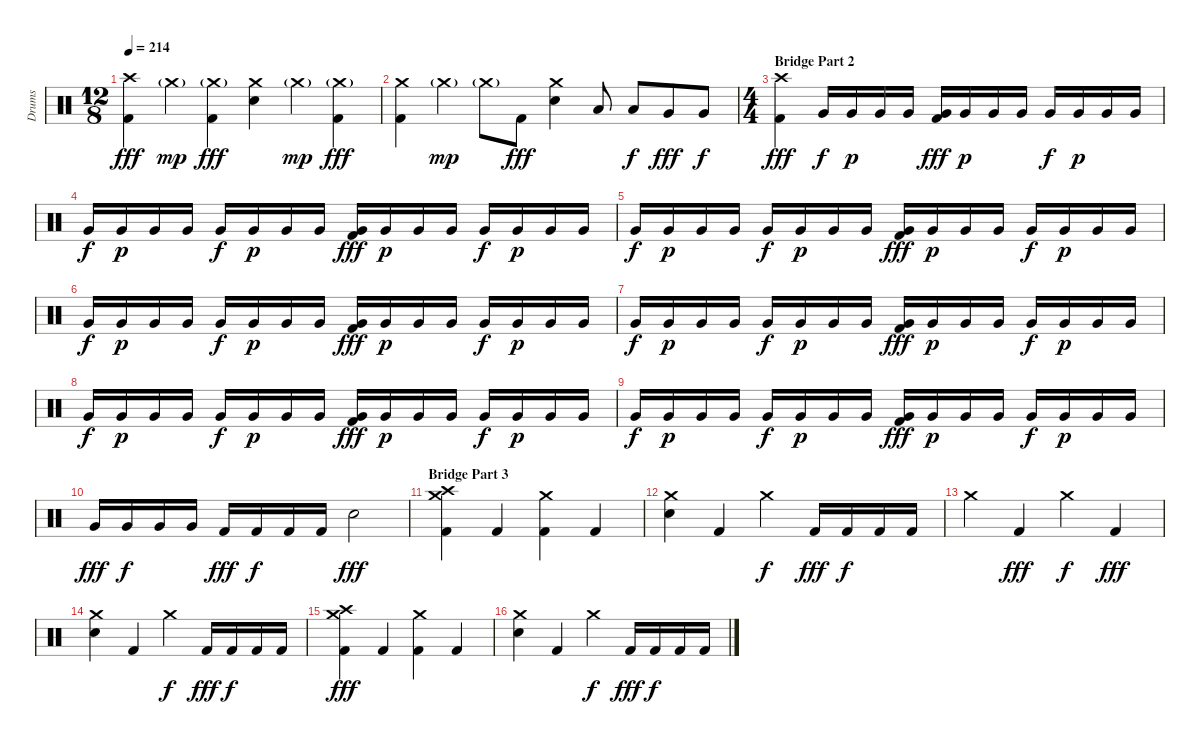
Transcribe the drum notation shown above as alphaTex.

\track ("Drums" "Drums") {instrument percussion}
\staff {score}
\articulation defaults
\ts (12 8)
\tempo 214
\clef neutral
\ks c
("Crash high (hit)" "Kick (hit) 2").4{dy fff} "Crash medium (hit)"{g}.4{dy mp} ("Crash medium (hit)"{g} "Kick (hit) 2").4{dy fff} ("Crash medium (hit)" "Electric Snare (hit)").4 "Crash medium (hit)"{g}.4{dy mp} ("Crash medium (hit)"{g} "Kick (hit) 2").4{dy fff} |
("Crash medium (hit)" "Kick (hit) 2").4 "Crash medium (hit)"{g}.4{dy mp} "Crash medium (hit)"{g}.8 "Kick (hit) 2".8{dy fff} ("Crash medium (hit)" "Electric Snare (hit)").4 "Low Tom (hit)".8 "Low Tom (hit)".8{dy f} "Very Low Tom (hit)".8{dy fff} "Very Low Tom (hit)".8{dy f} |
\ts (4 4)
\section ("" "Bridge Part 2")
("Crash high (hit)" "Kick (hit) 2").4{dy fff} "Very Low Tom (hit)".16{dy f} "Very Low Tom (hit)".16{dy p} "Very Low Tom (hit)".16 "Very Low Tom (hit)".16 ("Very Low Tom (hit)" "Kick (hit) 2").16{dy fff} "Very Low Tom (hit)".16{dy p} "Very Low Tom (hit)".16 "Very Low Tom (hit)".16 "Very Low Tom (hit)".16{dy f} "Very Low Tom (hit)".16{dy p} "Very Low Tom (hit)".16 "Very Low Tom (hit)".16 |
"Very Low Tom (hit)".16{dy f} "Very Low Tom (hit)".16{dy p} "Very Low Tom (hit)".16 "Very Low Tom (hit)".16 "Very Low Tom (hit)".16{dy f} "Very Low Tom (hit)".16{dy p} "Very Low Tom (hit)".16 "Very Low Tom (hit)".16 ("Very Low Tom (hit)" "Kick (hit) 2").16{dy fff} "Very Low Tom (hit)".16{dy p} "Very Low Tom (hit)".16 "Very Low Tom (hit)".16 "Very Low Tom (hit)".16{dy f} "Very Low Tom (hit)".16{dy p} "Very Low Tom (hit)".16 "Very Low Tom (hit)".16 |
"Very Low Tom (hit)".16{dy f} "Very Low Tom (hit)".16{dy p} "Very Low Tom (hit)".16 "Very Low Tom (hit)".16 "Very Low Tom (hit)".16{dy f} "Very Low Tom (hit)".16{dy p} "Very Low Tom (hit)".16 "Very Low Tom (hit)".16 ("Very Low Tom (hit)" "Kick (hit) 2").16{dy fff} "Very Low Tom (hit)".16{dy p} "Very Low Tom (hit)".16 "Very Low Tom (hit)".16 "Very Low Tom (hit)".16{dy f} "Very Low Tom (hit)".16{dy p} "Very Low Tom (hit)".16 "Very Low Tom (hit)".16 |
"Very Low Tom (hit)".16{dy f} "Very Low Tom (hit)".16{dy p} "Very Low Tom (hit)".16 "Very Low Tom (hit)".16 "Very Low Tom (hit)".16{dy f} "Very Low Tom (hit)".16{dy p} "Very Low Tom (hit)".16 "Very Low Tom (hit)".16 ("Very Low Tom (hit)" "Kick (hit) 2").16{dy fff} "Very Low Tom (hit)".16{dy p} "Very Low Tom (hit)".16 "Very Low Tom (hit)".16 "Very Low Tom (hit)".16{dy f} "Very Low Tom (hit)".16{dy p} "Very Low Tom (hit)".16 "Very Low Tom (hit)".16 |
"Very Low Tom (hit)".16{dy f} "Very Low Tom (hit)".16{dy p} "Very Low Tom (hit)".16 "Very Low Tom (hit)".16 "Very Low Tom (hit)".16{dy f} "Very Low Tom (hit)".16{dy p} "Very Low Tom (hit)".16 "Very Low Tom (hit)".16 ("Very Low Tom (hit)" "Kick (hit) 2").16{dy fff} "Very Low Tom (hit)".16{dy p} "Very Low Tom (hit)".16 "Very Low Tom (hit)".16 "Very Low Tom (hit)".16{dy f} "Very Low Tom (hit)".16{dy p} "Very Low Tom (hit)".16 "Very Low Tom (hit)".16 |
"Very Low Tom (hit)".16{dy f} "Very Low Tom (hit)".16{dy p} "Very Low Tom (hit)".16 "Very Low Tom (hit)".16 "Very Low Tom (hit)".16{dy f} "Very Low Tom (hit)".16{dy p} "Very Low Tom (hit)".16 "Very Low Tom (hit)".16 ("Very Low Tom (hit)" "Kick (hit) 2").16{dy fff} "Very Low Tom (hit)".16{dy p} "Very Low Tom (hit)".16 "Very Low Tom (hit)".16 "Very Low Tom (hit)".16{dy f} "Very Low Tom (hit)".16{dy p} "Very Low Tom (hit)".16 "Very Low Tom (hit)".16 |
"Very Low Tom (hit)".16{dy f} "Very Low Tom (hit)".16{dy p} "Very Low Tom (hit)".16 "Very Low Tom (hit)".16 "Very Low Tom (hit)".16{dy f} "Very Low Tom (hit)".16{dy p} "Very Low Tom (hit)".16 "Very Low Tom (hit)".16 ("Very Low Tom (hit)" "Kick (hit) 2").16{dy fff} "Very Low Tom (hit)".16{dy p} "Very Low Tom (hit)".16 "Very Low Tom (hit)".16 "Very Low Tom (hit)".16{dy f} "Very Low Tom (hit)".16{dy p} "Very Low Tom (hit)".16 "Very Low Tom (hit)".16 |
"Very Low Tom (hit)".16{dy fff} "Very Low Tom (hit)".16{dy f} "Very Low Tom (hit)".16 "Very Low Tom (hit)".16 "Kick (hit) 2".16{dy fff} "Kick (hit) 2".16{dy f} "Kick (hit) 2".16 "Kick (hit) 2".16 "Electric Snare (hit)".2{dy fff} |
\section ("" "Bridge Part 3")
("Crash medium (hit)" "Crash high (hit)" "Kick (hit) 2").4 "Kick (hit) 2".4 ("Crash medium (hit)" "Kick (hit) 2").4 "Kick (hit) 2".4 |
("Crash medium (hit)" "Electric Snare (hit)").4 "Kick (hit) 2".4 "Crash medium (hit)".4{dy f} "Kick (hit) 2".16{dy fff} "Kick (hit) 2".16{dy f} "Kick (hit) 2".16 "Kick (hit) 2".16 |
"Crash medium (hit)".4 "Kick (hit) 2".4{dy fff} "Crash medium (hit)".4{dy f} "Kick (hit) 2".4{dy fff} |
("Crash medium (hit)" "Electric Snare (hit)").4 "Kick (hit) 2".4 "Crash medium (hit)".4{dy f} "Kick (hit) 2".16{dy fff} "Kick (hit) 2".16{dy f} "Kick (hit) 2".16 "Kick (hit) 2".16 |
("Crash medium (hit)" "Crash high (hit)" "Kick (hit) 2").4{dy fff} "Kick (hit) 2".4 ("Crash medium (hit)" "Kick (hit) 2").4 "Kick (hit) 2".4 |
("Crash medium (hit)" "Electric Snare (hit)").4 "Kick (hit) 2".4 "Crash medium (hit)".4{dy f} "Kick (hit) 2".16{dy fff} "Kick (hit) 2".16{dy f} "Kick (hit) 2".16 "Kick (hit) 2".16
